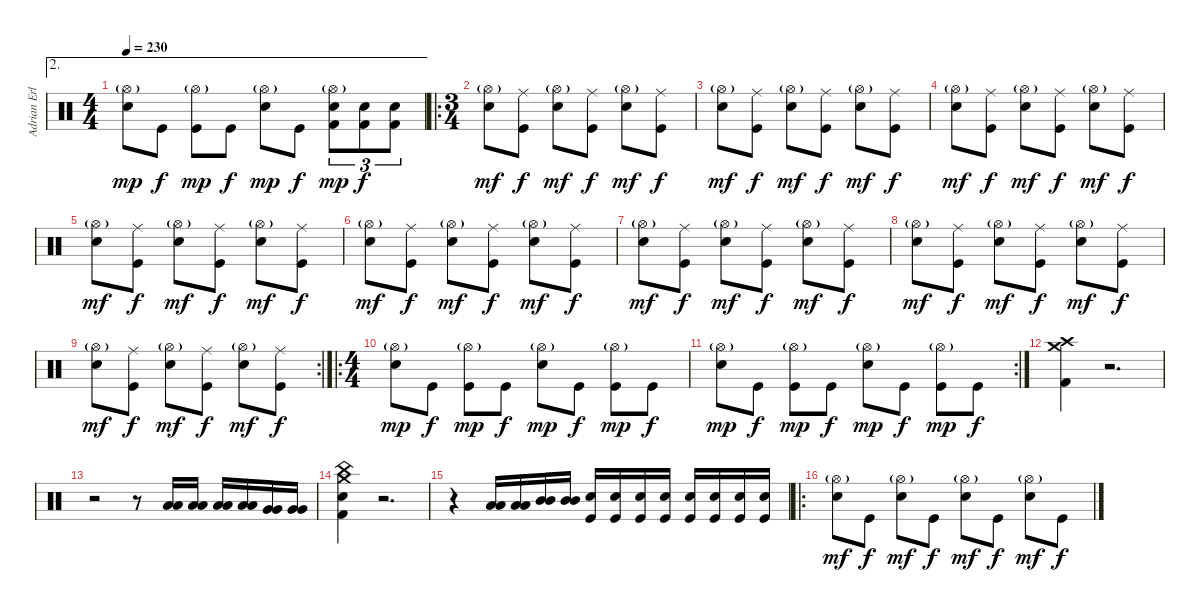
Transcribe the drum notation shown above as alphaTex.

\track ("Adrian Erlandsson - Drums" "Adrian Erl") {instrument percussion}
\staff {score}
\articulation defaults
\ae 2
\ts (4 4)
\tempo 230
\clef neutral
\ks c
("Hi-Hat (open)"{g} "Electric Snare (hit)").8{dy mp} "Kick (hit)".8{dy f} ("Hi-Hat (open)"{g} "Kick (hit)").8{dy mp} "Kick (hit)".8{dy f} ("Hi-Hat (open)"{g} "Electric Snare (hit)").8{dy mp} "Kick (hit)".8{dy f} ("Hi-Hat (open)"{g} "Electric Snare (hit)" "Kick (hit) 2").8{tu (3 2) dy mp} ("Electric Snare (hit)" "Kick (hit) 2").8{tu (3 2) dy f} ("Electric Snare (hit)" "Kick (hit) 2").8{tu (3 2)} |
\ro
\ts (3 4)
("Hi-Hat (open)"{g} "Electric Snare (hit)").8{dy mf} ("Ride (middle)" "Kick (hit)").8{dy f} ("Hi-Hat (open)"{g} "Electric Snare (hit)").8{dy mf} ("Ride (middle)" "Kick (hit)").8{dy f} ("Hi-Hat (open)"{g} "Electric Snare (hit)").8{dy mf} ("Ride (middle)" "Kick (hit)").8{dy f} |
("Hi-Hat (open)"{g} "Electric Snare (hit)").8{dy mf} ("Ride (middle)" "Kick (hit)").8{dy f} ("Hi-Hat (open)"{g} "Electric Snare (hit)").8{dy mf} ("Ride (middle)" "Kick (hit)").8{dy f} ("Hi-Hat (open)"{g} "Electric Snare (hit)").8{dy mf} ("Ride (middle)" "Kick (hit)").8{dy f} |
("Hi-Hat (open)"{g} "Electric Snare (hit)").8{dy mf} ("Ride (middle)" "Kick (hit)").8{dy f} ("Hi-Hat (open)"{g} "Electric Snare (hit)").8{dy mf} ("Ride (middle)" "Kick (hit)").8{dy f} ("Hi-Hat (open)"{g} "Electric Snare (hit)").8{dy mf} ("Ride (middle)" "Kick (hit)").8{dy f} |
("Hi-Hat (open)"{g} "Electric Snare (hit)").8{dy mf} ("Ride (middle)" "Kick (hit)").8{dy f} ("Hi-Hat (open)"{g} "Electric Snare (hit)").8{dy mf} ("Ride (middle)" "Kick (hit)").8{dy f} ("Hi-Hat (open)"{g} "Electric Snare (hit)").8{dy mf} ("Ride (middle)" "Kick (hit)").8{dy f} |
("Hi-Hat (open)"{g} "Electric Snare (hit)").8{dy mf} ("Ride (middle)" "Kick (hit)").8{dy f} ("Hi-Hat (open)"{g} "Electric Snare (hit)").8{dy mf} ("Ride (middle)" "Kick (hit)").8{dy f} ("Hi-Hat (open)"{g} "Electric Snare (hit)").8{dy mf} ("Ride (middle)" "Kick (hit)").8{dy f} |
("Hi-Hat (open)"{g} "Electric Snare (hit)").8{dy mf} ("Ride (middle)" "Kick (hit)").8{dy f} ("Hi-Hat (open)"{g} "Electric Snare (hit)").8{dy mf} ("Ride (middle)" "Kick (hit)").8{dy f} ("Hi-Hat (open)"{g} "Electric Snare (hit)").8{dy mf} ("Ride (middle)" "Kick (hit)").8{dy f} |
("Hi-Hat (open)"{g} "Electric Snare (hit)").8{dy mf} ("Ride (middle)" "Kick (hit)").8{dy f} ("Hi-Hat (open)"{g} "Electric Snare (hit)").8{dy mf} ("Ride (middle)" "Kick (hit)").8{dy f} ("Hi-Hat (open)"{g} "Electric Snare (hit)").8{dy mf} ("Ride (middle)" "Kick (hit)").8{dy f} |
\rc 2
("Hi-Hat (open)"{g} "Electric Snare (hit)").8{dy mf} ("Ride (middle)" "Kick (hit)").8{dy f} ("Hi-Hat (open)"{g} "Electric Snare (hit)").8{dy mf} ("Ride (middle)" "Kick (hit)").8{dy f} ("Hi-Hat (open)"{g} "Electric Snare (hit)").8{dy mf} ("Ride (middle)" "Kick (hit)").8{dy f} |
\ro
\ts (4 4)
("Hi-Hat (open)"{g} "Electric Snare (hit)").8{dy mp} "Kick (hit)".8{dy f} ("Hi-Hat (open)"{g} "Kick (hit)").8{dy mp} "Kick (hit)".8{dy f} ("Hi-Hat (open)"{g} "Electric Snare (hit)").8{dy mp} "Kick (hit)".8{dy f} ("Hi-Hat (open)"{g} "Kick (hit)").8{dy mp} "Kick (hit)".8{dy f} |
\rc 2
("Hi-Hat (open)"{g} "Electric Snare (hit)").8{dy mp} "Kick (hit)".8{dy f} ("Hi-Hat (open)"{g} "Kick (hit)").8{dy mp} "Kick (hit)".8{dy f} ("Hi-Hat (open)"{g} "Electric Snare (hit)").8{dy mp} "Kick (hit)".8{dy f} ("Hi-Hat (open)"{g} "Kick (hit)").8{dy mp} "Kick (hit)".8{dy f} |
("Crash medium (hit)" "Crash high (hit)" "Kick (hit) 2").4 r.2{d} |
r.2 r.8 ("Low Tom (hit)" "Low Tom (hit)").16 ("Low Tom (hit)" "Low Tom (hit)").16 ("Low Tom (hit)" "Low Tom (hit)").16 ("Low Tom (hit)" "Low Tom (hit)").16 ("Very Low Tom (hit)" "Very Low Tom (hit)").16 ("Very Low Tom (hit)" "Very Low Tom (hit)").16 |
("Crash medium (hit)" "China (hit)" "Electric Snare (hit)" "Kick (hit) 2").4 r.2{d} |
r.4 ("Low Tom (hit)" "Low Tom (hit)").16 ("Low Tom (hit)" "Low Tom (hit)").16 ("Mid Tom (hit)" "Mid Tom (hit)").16 ("Mid Tom (hit)" "Mid Tom (hit)").16 ("Electric Snare (hit)" "Kick (hit)").16 ("Electric Snare (hit)" "Kick (hit)").16 ("Electric Snare (hit)" "Kick (hit)").16 ("Electric Snare (hit)" "Kick (hit)").16 ("Electric Snare (hit)" "Kick (hit)").16 ("Electric Snare (hit)" "Kick (hit)").16 ("Electric Snare (hit)" "Kick (hit)").16 ("Electric Snare (hit)" "Kick (hit)").16 |
\ro
("Hi-Hat (open)"{g} "Electric Snare (hit)").8{dy mf} "Kick (hit)".8{dy f} ("Hi-Hat (open)"{g} "Electric Snare (hit)").8{dy mf} "Kick (hit)".8{dy f} ("Hi-Hat (open)"{g} "Electric Snare (hit)").8{dy mf} "Kick (hit)".8{dy f} ("Hi-Hat (open)"{g} "Electric Snare (hit)").8{dy mf} "Kick (hit)".8{dy f}
